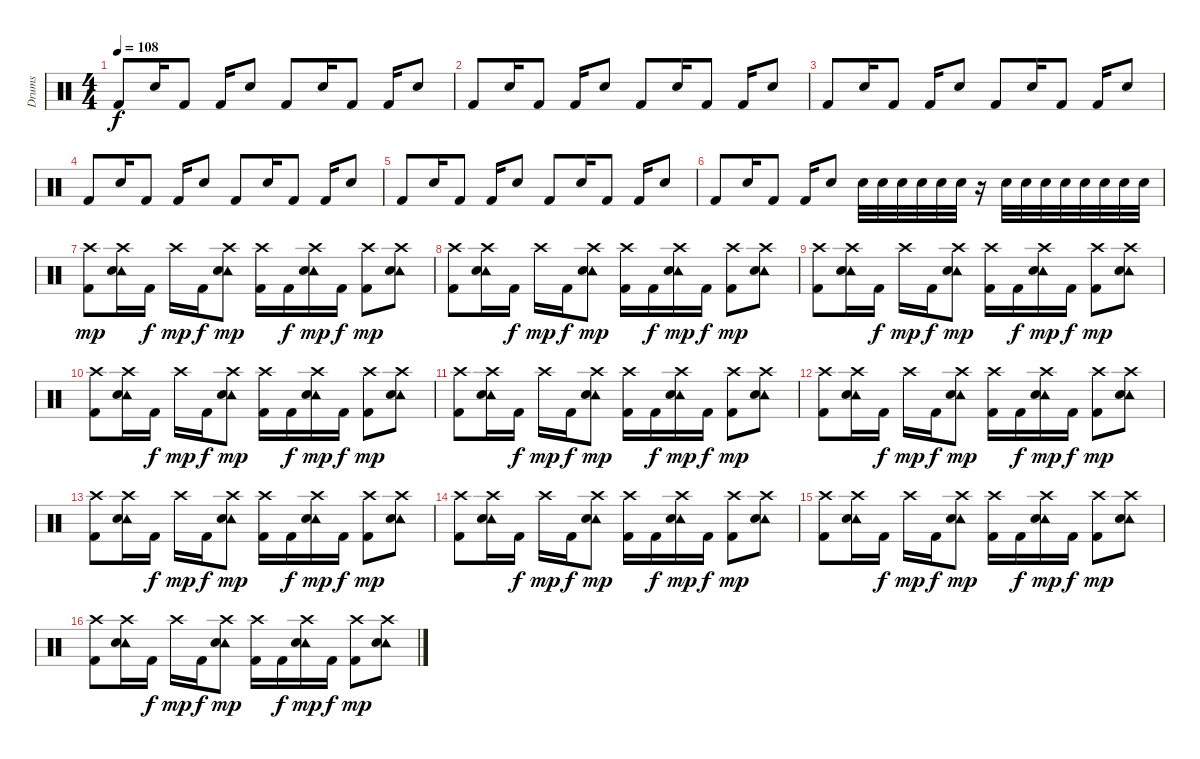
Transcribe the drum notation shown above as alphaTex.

\track ("Drums" "Drums") {instrument percussion}
\staff {score}
\articulation defaults
\ts (4 4)
\tempo 108
\clef neutral
\ks c "Kick (hit) 2".8{dy f} "Snare (hit) 2".16 "Kick (hit) 2".8 "Kick (hit) 2".16 "Snare (hit) 2".8 "Kick (hit) 2".8 "Snare (hit) 2".16 "Kick (hit) 2".8 "Kick (hit) 2".16 "Snare (hit) 2".8
|
"Kick (hit) 2".8 "Snare (hit) 2".16 "Kick (hit) 2".8 "Kick (hit) 2".16 "Snare (hit) 2".8 "Kick (hit) 2".8 "Snare (hit) 2".16 "Kick (hit) 2".8 "Kick (hit) 2".16 "Snare (hit) 2".8 |
"Kick (hit) 2".8 "Snare (hit) 2".16 "Kick (hit) 2".8 "Kick (hit) 2".16 "Snare (hit) 2".8 "Kick (hit) 2".8 "Snare (hit) 2".16 "Kick (hit) 2".8 "Kick (hit) 2".16 "Snare (hit) 2".8 |
"Kick (hit) 2".8 "Snare (hit) 2".16 "Kick (hit) 2".8 "Kick (hit) 2".16 "Snare (hit) 2".8 "Kick (hit) 2".8 "Snare (hit) 2".16 "Kick (hit) 2".8 "Kick (hit) 2".16 "Snare (hit) 2".8 |
"Kick (hit) 2".8 "Snare (hit) 2".16 "Kick (hit) 2".8 "Kick (hit) 2".16 "Snare (hit) 2".8 "Kick (hit) 2".8 "Snare (hit) 2".16 "Kick (hit) 2".8 "Kick (hit) 2".16 "Snare (hit) 2".8 |
"Kick (hit) 2".8 "Snare (hit) 2".16 "Kick (hit) 2".8 "Kick (hit) 2".16 "Snare (hit) 2".8 "Snare (hit) 2".32 "Snare (hit) 2".32 "Snare (hit) 2".32 "Snare (hit) 2".32 "Snare (hit) 2".32 "Snare (hit) 2".32 r.16 "Snare (hit) 2".32 "Snare (hit) 2".32 "Snare (hit) 2".32 "Snare (hit) 2".32 "Snare (hit) 2".32 "Snare (hit) 2".32 "Snare (hit) 2".32 "Snare (hit) 2".32 |
("Crash high (hit)" "Kick (hit) 2").8{dy mp} ("Tambourine (hit)" "Crash high (hit)" "Snare (hit) 2").16 "Kick (hit) 2".16{dy f} "Crash high (hit)".16{dy mp} "Kick (hit) 2".16{dy f} ("Tambourine (hit)" "Crash high (hit)" "Snare (hit) 2").8{dy mp} ("Crash high (hit)" "Kick (hit) 2").16 "Kick (hit) 2".16{dy f} ("Tambourine (hit)" "Crash high (hit)" "Snare (hit) 2").16{dy mp} "Kick (hit) 2".16{dy f} ("Crash high (hit)" "Kick (hit) 2").8{dy mp} ("Tambourine (hit)" "Crash high (hit)" "Snare (hit) 2").8 |
("Crash high (hit)" "Kick (hit) 2").8 ("Tambourine (hit)" "Crash high (hit)" "Snare (hit) 2").16 "Kick (hit) 2".16{dy f} "Crash high (hit)".16{dy mp} "Kick (hit) 2".16{dy f} ("Tambourine (hit)" "Crash high (hit)" "Snare (hit) 2").8{dy mp} ("Crash high (hit)" "Kick (hit) 2").16 "Kick (hit) 2".16{dy f} ("Tambourine (hit)" "Crash high (hit)" "Snare (hit) 2").16{dy mp} "Kick (hit) 2".16{dy f} ("Crash high (hit)" "Kick (hit) 2").8{dy mp} ("Tambourine (hit)" "Crash high (hit)" "Snare (hit) 2").8 |
("Crash high (hit)" "Kick (hit) 2").8 ("Tambourine (hit)" "Crash high (hit)" "Snare (hit) 2").16 "Kick (hit) 2".16{dy f} "Crash high (hit)".16{dy mp} "Kick (hit) 2".16{dy f} ("Tambourine (hit)" "Crash high (hit)" "Snare (hit) 2").8{dy mp} ("Crash high (hit)" "Kick (hit) 2").16 "Kick (hit) 2".16{dy f} ("Tambourine (hit)" "Crash high (hit)" "Snare (hit) 2").16{dy mp} "Kick (hit) 2".16{dy f} ("Crash high (hit)" "Kick (hit) 2").8{dy mp} ("Tambourine (hit)" "Crash high (hit)" "Snare (hit) 2").8 |
("Crash high (hit)" "Kick (hit) 2").8 ("Tambourine (hit)" "Crash high (hit)" "Snare (hit) 2").16 "Kick (hit) 2".16{dy f} "Crash high (hit)".16{dy mp} "Kick (hit) 2".16{dy f} ("Tambourine (hit)" "Crash high (hit)" "Snare (hit) 2").8{dy mp} ("Crash high (hit)" "Kick (hit) 2").16 "Kick (hit) 2".16{dy f} ("Tambourine (hit)" "Crash high (hit)" "Snare (hit) 2").16{dy mp} "Kick (hit) 2".16{dy f} ("Crash high (hit)" "Kick (hit) 2").8{dy mp} ("Tambourine (hit)" "Crash high (hit)" "Snare (hit) 2").8 |
("Crash high (hit)" "Kick (hit) 2").8 ("Tambourine (hit)" "Crash high (hit)" "Snare (hit) 2").16 "Kick (hit) 2".16{dy f} "Crash high (hit)".16{dy mp} "Kick (hit) 2".16{dy f} ("Tambourine (hit)" "Crash high (hit)" "Snare (hit) 2").8{dy mp} ("Crash high (hit)" "Kick (hit) 2").16 "Kick (hit) 2".16{dy f} ("Tambourine (hit)" "Crash high (hit)" "Snare (hit) 2").16{dy mp} "Kick (hit) 2".16{dy f} ("Crash high (hit)" "Kick (hit) 2").8{dy mp} ("Tambourine (hit)" "Crash high (hit)" "Snare (hit) 2").8 |
("Crash high (hit)" "Kick (hit) 2").8 ("Tambourine (hit)" "Crash high (hit)" "Snare (hit) 2").16 "Kick (hit) 2".16{dy f} "Crash high (hit)".16{dy mp} "Kick (hit) 2".16{dy f} ("Tambourine (hit)" "Crash high (hit)" "Snare (hit) 2").8{dy mp} ("Crash high (hit)" "Kick (hit) 2").16 "Kick (hit) 2".16{dy f} ("Tambourine (hit)" "Crash high (hit)" "Snare (hit) 2").16{dy mp} "Kick (hit) 2".16{dy f} ("Crash high (hit)" "Kick (hit) 2").8{dy mp} ("Tambourine (hit)" "Crash high (hit)" "Snare (hit) 2").8 |
("Crash high (hit)" "Kick (hit) 2").8 ("Tambourine (hit)" "Crash high (hit)" "Snare (hit) 2").16 "Kick (hit) 2".16{dy f} "Crash high (hit)".16{dy mp} "Kick (hit) 2".16{dy f} ("Tambourine (hit)" "Crash high (hit)" "Snare (hit) 2").8{dy mp} ("Crash high (hit)" "Kick (hit) 2").16 "Kick (hit) 2".16{dy f} ("Tambourine (hit)" "Crash high (hit)" "Snare (hit) 2").16{dy mp} "Kick (hit) 2".16{dy f} ("Crash high (hit)" "Kick (hit) 2").8{dy mp} ("Tambourine (hit)" "Crash high (hit)" "Snare (hit) 2").8 |
("Crash high (hit)" "Kick (hit) 2").8 ("Tambourine (hit)" "Crash high (hit)" "Snare (hit) 2").16 "Kick (hit) 2".16{dy f} "Crash high (hit)".16{dy mp} "Kick (hit) 2".16{dy f} ("Tambourine (hit)" "Crash high (hit)" "Snare (hit) 2").8{dy mp} ("Crash high (hit)" "Kick (hit) 2").16 "Kick (hit) 2".16{dy f} ("Tambourine (hit)" "Crash high (hit)" "Snare (hit) 2").16{dy mp} "Kick (hit) 2".16{dy f} ("Crash high (hit)" "Kick (hit) 2").8{dy mp} ("Tambourine (hit)" "Crash high (hit)" "Snare (hit) 2").8 |
("Crash high (hit)" "Kick (hit) 2").8 ("Tambourine (hit)" "Crash high (hit)" "Snare (hit) 2").16 "Kick (hit) 2".16{dy f} "Crash high (hit)".16{dy mp} "Kick (hit) 2".16{dy f} ("Tambourine (hit)" "Crash high (hit)" "Snare (hit) 2").8{dy mp} ("Crash high (hit)" "Kick (hit) 2").16 "Kick (hit) 2".16{dy f} ("Tambourine (hit)" "Crash high (hit)" "Snare (hit) 2").16{dy mp} "Kick (hit) 2".16{dy f} ("Crash high (hit)" "Kick (hit) 2").8{dy mp} ("Tambourine (hit)" "Crash high (hit)" "Snare (hit) 2").8 |
("Crash high (hit)" "Kick (hit) 2").8 ("Tambourine (hit)" "Crash high (hit)" "Snare (hit) 2").16 "Kick (hit) 2".16{dy f} "Crash high (hit)".16{dy mp} "Kick (hit) 2".16{dy f} ("Tambourine (hit)" "Crash high (hit)" "Snare (hit) 2").8{dy mp} ("Crash high (hit)" "Kick (hit) 2").16 "Kick (hit) 2".16{dy f} ("Tambourine (hit)" "Crash high (hit)" "Snare (hit) 2").16{dy mp} "Kick (hit) 2".16{dy f} ("Crash high (hit)" "Kick (hit) 2").8{dy mp} ("Tambourine (hit)" "Crash high (hit)" "Snare (hit) 2").8
